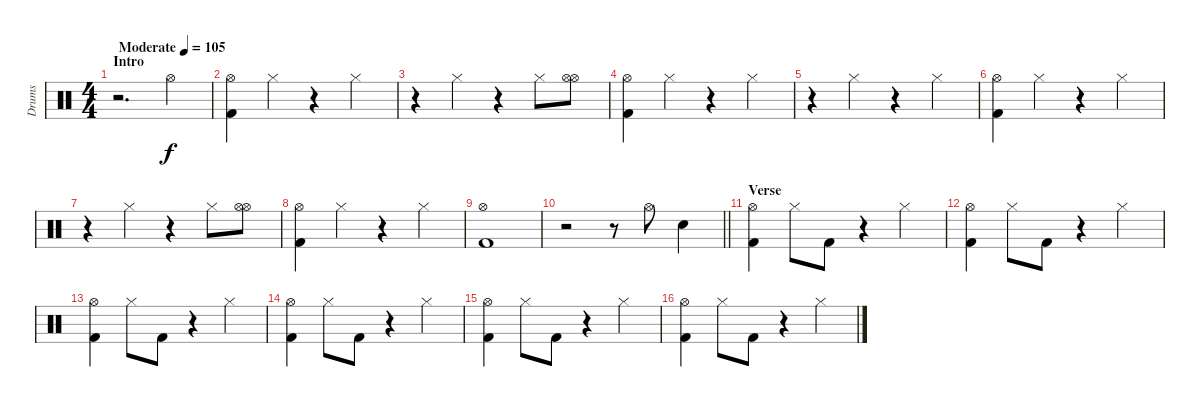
\track ("Drums" "Drums") {instrument percussion}
\staff {score}
\articulation defaults
\ts (4 4)
\section ("" "Intro")
\tempo (105 "Moderate")
\clef neutral
\ks c
r.2{d dy f} "Hi-Hat (open)".4 |
("Hi-Hat (open)" "Kick (hit) 2").4 "Hi-Hat (closed)".4 r.4 "Hi-Hat (closed)".4 |
r.4 "Hi-Hat (closed)".4 r.4 "Hi-Hat (closed)".8 ("Hi-Hat (open)" "Hi-Hat (open)").8 |
("Hi-Hat (open)" "Kick (hit) 2").4 "Hi-Hat (closed)".4 r.4 "Hi-Hat (closed)".4 |
r.4 "Hi-Hat (closed)".4 r.4 "Hi-Hat (closed)".4 |
("Hi-Hat (open)" "Kick (hit) 2").4 "Hi-Hat (closed)".4 r.4 "Hi-Hat (closed)".4 |
r.4 "Hi-Hat (closed)".4 r.4 "Hi-Hat (closed)".8 ("Hi-Hat (open)" "Hi-Hat (open)").8 |
("Hi-Hat (open)" "Kick (hit) 2").4 "Hi-Hat (closed)".4 r.4 "Hi-Hat (closed)".4 |
("Hi-Hat (open)" "Kick (hit) 2").1 |
\barLineRight lightlight
r.2 r.8 "Hi-Hat (open)".8 "Snare (hit) 2".4 |
\section ("" "Verse")
("Hi-Hat (open)" "Kick (hit) 2").4 "Hi-Hat (closed)".8 "Kick (hit) 2".8 r.4 "Hi-Hat (closed)".4 |
("Hi-Hat (open)" "Kick (hit) 2").4 "Hi-Hat (closed)".8 "Kick (hit) 2".8 r.4 "Hi-Hat (closed)".4 |
("Hi-Hat (open)" "Kick (hit) 2").4 "Hi-Hat (closed)".8 "Kick (hit) 2".8 r.4 "Hi-Hat (closed)".4 |
("Hi-Hat (open)" "Kick (hit) 2").4 "Hi-Hat (closed)".8 "Kick (hit) 2".8 r.4 "Hi-Hat (closed)".4 |
("Hi-Hat (open)" "Kick (hit) 2").4 "Hi-Hat (closed)".8 "Kick (hit) 2".8 r.4 "Hi-Hat (closed)".4 |
("Hi-Hat (open)" "Kick (hit) 2").4 "Hi-Hat (closed)".8 "Kick (hit) 2".8 r.4 "Hi-Hat (closed)".4
